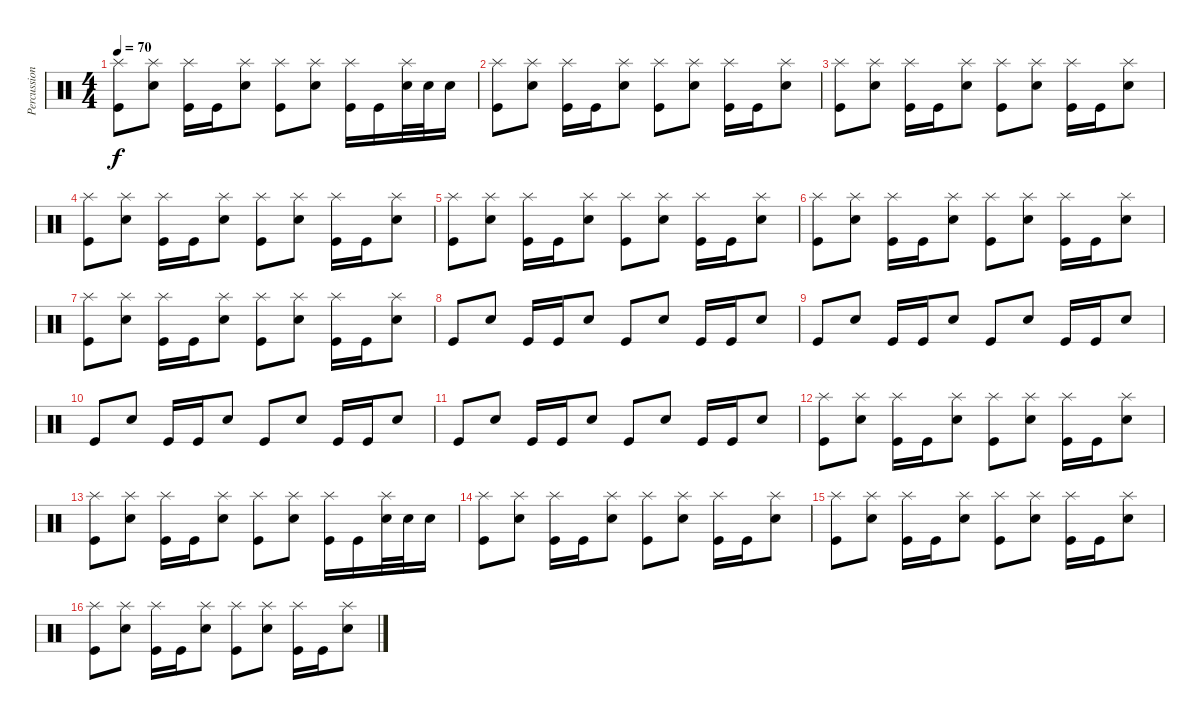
\track ("Percussions" "Percussion") {instrument percussion}
\staff {score}
\articulation defaults
\ts (4 4)
\tempo 70
\clef neutral
\ks c
("Splash (hit)" "Kick (hit)").8{dy f} ("Splash (hit)" "Electric Snare (hit)").8 ("Splash (hit)" "Kick (hit)").16 "Kick (hit)".16 ("Splash (hit)" "Electric Snare (hit)").8 ("Splash (hit)" "Kick (hit)").8 ("Splash (hit)" "Electric Snare (hit)").8 ("Splash (hit)" "Kick (hit)").16 "Kick (hit)".16 ("Splash (hit)" "Electric Snare (hit)").32 "Electric Snare (hit)".32 "Electric Snare (hit)".16 |
("Splash (hit)" "Kick (hit)").8 ("Splash (hit)" "Electric Snare (hit)").8 ("Splash (hit)" "Kick (hit)").16 "Kick (hit)".16 ("Splash (hit)" "Electric Snare (hit)").8 ("Splash (hit)" "Kick (hit)").8 ("Splash (hit)" "Electric Snare (hit)").8 ("Splash (hit)" "Kick (hit)").16 "Kick (hit)".16 ("Splash (hit)" "Electric Snare (hit)").8 |
("Splash (hit)" "Kick (hit)").8 ("Splash (hit)" "Electric Snare (hit)").8 ("Splash (hit)" "Kick (hit)").16 "Kick (hit)".16 ("Splash (hit)" "Electric Snare (hit)").8 ("Splash (hit)" "Kick (hit)").8 ("Splash (hit)" "Electric Snare (hit)").8 ("Splash (hit)" "Kick (hit)").16 "Kick (hit)".16 ("Splash (hit)" "Electric Snare (hit)").8 |
("Splash (hit)" "Kick (hit)").8 ("Splash (hit)" "Electric Snare (hit)").8 ("Splash (hit)" "Kick (hit)").16 "Kick (hit)".16 ("Splash (hit)" "Electric Snare (hit)").8 ("Splash (hit)" "Kick (hit)").8 ("Splash (hit)" "Electric Snare (hit)").8 ("Splash (hit)" "Kick (hit)").16 "Kick (hit)".16 ("Splash (hit)" "Electric Snare (hit)").8 |
("Splash (hit)" "Kick (hit)").8 ("Splash (hit)" "Electric Snare (hit)").8 ("Splash (hit)" "Kick (hit)").16 "Kick (hit)".16 ("Splash (hit)" "Electric Snare (hit)").8 ("Splash (hit)" "Kick (hit)").8 ("Splash (hit)" "Electric Snare (hit)").8 ("Splash (hit)" "Kick (hit)").16 "Kick (hit)".16 ("Splash (hit)" "Electric Snare (hit)").8 |
("Splash (hit)" "Kick (hit)").8 ("Splash (hit)" "Electric Snare (hit)").8 ("Splash (hit)" "Kick (hit)").16 "Kick (hit)".16 ("Splash (hit)" "Electric Snare (hit)").8 ("Splash (hit)" "Kick (hit)").8 ("Splash (hit)" "Electric Snare (hit)").8 ("Splash (hit)" "Kick (hit)").16 "Kick (hit)".16 ("Splash (hit)" "Electric Snare (hit)").8 |
("Splash (hit)" "Kick (hit)").8 ("Splash (hit)" "Electric Snare (hit)").8 ("Splash (hit)" "Kick (hit)").16 "Kick (hit)".16 ("Splash (hit)" "Electric Snare (hit)").8 ("Splash (hit)" "Kick (hit)").8 ("Splash (hit)" "Electric Snare (hit)").8 ("Splash (hit)" "Kick (hit)").16 "Kick (hit)".16 ("Splash (hit)" "Electric Snare (hit)").8 |
"Kick (hit)".8 "Electric Snare (hit)".8 "Kick (hit)".16 "Kick (hit)".16 "Electric Snare (hit)".8 "Kick (hit)".8 "Electric Snare (hit)".8 "Kick (hit)".16 "Kick (hit)".16 "Electric Snare (hit)".8 |
"Kick (hit)".8 "Electric Snare (hit)".8 "Kick (hit)".16 "Kick (hit)".16 "Electric Snare (hit)".8 "Kick (hit)".8 "Electric Snare (hit)".8 "Kick (hit)".16 "Kick (hit)".16 "Electric Snare (hit)".8 |
"Kick (hit)".8 "Electric Snare (hit)".8 "Kick (hit)".16 "Kick (hit)".16 "Electric Snare (hit)".8 "Kick (hit)".8 "Electric Snare (hit)".8 "Kick (hit)".16 "Kick (hit)".16 "Electric Snare (hit)".8 |
"Kick (hit)".8 "Electric Snare (hit)".8 "Kick (hit)".16 "Kick (hit)".16 "Electric Snare (hit)".8 "Kick (hit)".8 "Electric Snare (hit)".8 "Kick (hit)".16 "Kick (hit)".16 "Electric Snare (hit)".8 |
("Splash (hit)" "Kick (hit)").8 ("Splash (hit)" "Electric Snare (hit)").8 ("Splash (hit)" "Kick (hit)").16 "Kick (hit)".16 ("Splash (hit)" "Electric Snare (hit)").8 ("Splash (hit)" "Kick (hit)").8 ("Splash (hit)" "Electric Snare (hit)").8 ("Splash (hit)" "Kick (hit)").16 "Kick (hit)".16 ("Splash (hit)" "Electric Snare (hit)").8 |
("Splash (hit)" "Kick (hit)").8 ("Splash (hit)" "Electric Snare (hit)").8 ("Splash (hit)" "Kick (hit)").16 "Kick (hit)".16 ("Splash (hit)" "Electric Snare (hit)").8 ("Splash (hit)" "Kick (hit)").8 ("Splash (hit)" "Electric Snare (hit)").8 ("Splash (hit)" "Kick (hit)").16 "Kick (hit)".16 ("Splash (hit)" "Electric Snare (hit)").32 "Electric Snare (hit)".32 "Electric Snare (hit)".16 |
("Splash (hit)" "Kick (hit)").8 ("Splash (hit)" "Electric Snare (hit)").8 ("Splash (hit)" "Kick (hit)").16 "Kick (hit)".16 ("Splash (hit)" "Electric Snare (hit)").8 ("Splash (hit)" "Kick (hit)").8 ("Splash (hit)" "Electric Snare (hit)").8 ("Splash (hit)" "Kick (hit)").16 "Kick (hit)".16 ("Splash (hit)" "Electric Snare (hit)").8 |
("Splash (hit)" "Kick (hit)").8 ("Splash (hit)" "Electric Snare (hit)").8 ("Splash (hit)" "Kick (hit)").16 "Kick (hit)".16 ("Splash (hit)" "Electric Snare (hit)").8 ("Splash (hit)" "Kick (hit)").8 ("Splash (hit)" "Electric Snare (hit)").8 ("Splash (hit)" "Kick (hit)").16 "Kick (hit)".16 ("Splash (hit)" "Electric Snare (hit)").8 |
("Splash (hit)" "Kick (hit)").8 ("Splash (hit)" "Electric Snare (hit)").8 ("Splash (hit)" "Kick (hit)").16 "Kick (hit)".16 ("Splash (hit)" "Electric Snare (hit)").8 ("Splash (hit)" "Kick (hit)").8 ("Splash (hit)" "Electric Snare (hit)").8 ("Splash (hit)" "Kick (hit)").16 "Kick (hit)".16 ("Splash (hit)" "Electric Snare (hit)").8
